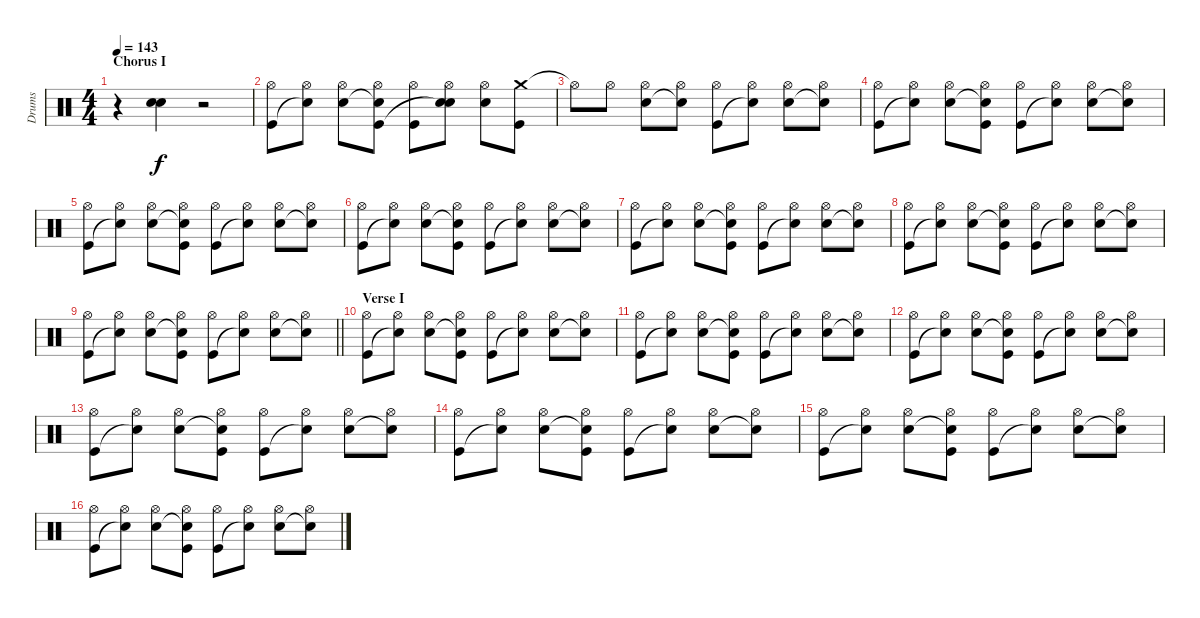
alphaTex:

\track ("Drums" "Drums") {instrument percussion}
\staff {score}
\articulation defaults
\ts (4 4)
\section ("" "Chorus I")
\tempo 143
\clef neutral
\ks c
r.4{dy f} ("Electric Snare (hit)" "Snare (hit) 2").4 r.2 |
("Hi-Hat (open)" "Kick (hit)").8 ("Hi-Hat (open)" "Snare (hit)"{t}).8 ("Hi-Hat (open)" "Snare (hit) 2").8 ("Hi-Hat (open)" "Snare (hit)"{t} "Kick (hit)").8 ("Hi-Hat (open)" "Kick (hit)").8 ("Hi-Hat (open)" "Snare (hit) 2" "Snare (hit)"{t}).8 ("Hi-Hat (open)" "Snare (hit) 2").8 ("Crash medium (hit)" "Kick (hit)").8 |
"Hi-Hat (open)"{t}.8 "Hi-Hat (open)".8 ("Hi-Hat (open)" "Snare (hit) 2").8 ("Hi-Hat (open)" "Snare (hit)"{t}).8 ("Hi-Hat (open)" "Kick (hit)").8 ("Hi-Hat (open)" "Snare (hit)"{t}).8 ("Hi-Hat (open)" "Snare (hit) 2").8 ("Hi-Hat (open)" "Snare (hit)"{t}).8 |
("Hi-Hat (open)" "Kick (hit)").8 ("Hi-Hat (open)" "Snare (hit)"{t}).8 ("Hi-Hat (open)" "Snare (hit) 2").8 ("Hi-Hat (open)" "Snare (hit)"{t} "Kick (hit)").8 ("Hi-Hat (open)" "Kick (hit)").8 ("Hi-Hat (open)" "Snare (hit)"{t}).8 ("Hi-Hat (open)" "Snare (hit) 2").8 ("Hi-Hat (open)" "Snare (hit)"{t}).8 |
("Hi-Hat (open)" "Kick (hit)").8 ("Hi-Hat (open)" "Snare (hit)"{t}).8 ("Hi-Hat (open)" "Snare (hit) 2").8 ("Hi-Hat (open)" "Snare (hit)"{t} "Kick (hit)").8 ("Hi-Hat (open)" "Kick (hit)").8 ("Hi-Hat (open)" "Snare (hit)"{t}).8 ("Hi-Hat (open)" "Snare (hit) 2").8 ("Hi-Hat (open)" "Snare (hit)"{t}).8 |
("Hi-Hat (open)" "Kick (hit)").8 ("Hi-Hat (open)" "Snare (hit)"{t}).8 ("Hi-Hat (open)" "Snare (hit) 2").8 ("Hi-Hat (open)" "Snare (hit)"{t} "Kick (hit)").8 ("Hi-Hat (open)" "Kick (hit)").8 ("Hi-Hat (open)" "Snare (hit)"{t}).8 ("Hi-Hat (open)" "Snare (hit) 2").8 ("Hi-Hat (open)" "Snare (hit)"{t}).8 |
("Hi-Hat (open)" "Kick (hit)").8 ("Hi-Hat (open)" "Snare (hit)"{t}).8 ("Hi-Hat (open)" "Snare (hit) 2").8 ("Hi-Hat (open)" "Snare (hit)"{t} "Kick (hit)").8 ("Hi-Hat (open)" "Kick (hit)").8 ("Hi-Hat (open)" "Snare (hit)"{t}).8 ("Hi-Hat (open)" "Snare (hit) 2").8 ("Hi-Hat (open)" "Snare (hit)"{t}).8 |
("Hi-Hat (open)" "Kick (hit)").8 ("Hi-Hat (open)" "Snare (hit)"{t}).8 ("Hi-Hat (open)" "Snare (hit) 2").8 ("Hi-Hat (open)" "Snare (hit)"{t} "Kick (hit)").8 ("Hi-Hat (open)" "Kick (hit)").8 ("Hi-Hat (open)" "Snare (hit)"{t}).8 ("Hi-Hat (open)" "Snare (hit) 2").8 ("Hi-Hat (open)" "Snare (hit)"{t}).8 |
\barLineRight lightlight
("Hi-Hat (open)" "Kick (hit)").8 ("Hi-Hat (open)" "Snare (hit)"{t}).8 ("Hi-Hat (open)" "Snare (hit) 2").8 ("Hi-Hat (open)" "Snare (hit)"{t} "Kick (hit)").8 ("Hi-Hat (open)" "Kick (hit)").8 ("Hi-Hat (open)" "Snare (hit)"{t}).8 ("Hi-Hat (open)" "Snare (hit) 2").8 ("Hi-Hat (open)" "Snare (hit)"{t}).8 |
\section ("" "Verse I")
("Hi-Hat (open)" "Kick (hit)").8 ("Hi-Hat (open)" "Snare (hit)"{t}).8 ("Hi-Hat (open)" "Snare (hit) 2").8 ("Hi-Hat (open)" "Snare (hit)"{t} "Kick (hit)").8 ("Hi-Hat (open)" "Kick (hit)").8 ("Hi-Hat (open)" "Snare (hit)"{t}).8 ("Hi-Hat (open)" "Snare (hit) 2").8 ("Hi-Hat (open)" "Snare (hit)"{t}).8 |
("Hi-Hat (open)" "Kick (hit)").8 ("Hi-Hat (open)" "Snare (hit)"{t}).8 ("Hi-Hat (open)" "Snare (hit) 2").8 ("Hi-Hat (open)" "Snare (hit)"{t} "Kick (hit)").8 ("Hi-Hat (open)" "Kick (hit)").8 ("Hi-Hat (open)" "Snare (hit)"{t}).8 ("Hi-Hat (open)" "Snare (hit) 2").8 ("Hi-Hat (open)" "Snare (hit)"{t}).8 |
("Hi-Hat (open)" "Kick (hit)").8 ("Hi-Hat (open)" "Snare (hit)"{t}).8 ("Hi-Hat (open)" "Snare (hit) 2").8 ("Hi-Hat (open)" "Snare (hit)"{t} "Kick (hit)").8 ("Hi-Hat (open)" "Kick (hit)").8 ("Hi-Hat (open)" "Snare (hit)"{t}).8 ("Hi-Hat (open)" "Snare (hit) 2").8 ("Hi-Hat (open)" "Snare (hit)"{t}).8 |
("Hi-Hat (open)" "Kick (hit)").8 ("Hi-Hat (open)" "Snare (hit)"{t}).8 ("Hi-Hat (open)" "Snare (hit) 2").8 ("Hi-Hat (open)" "Snare (hit)"{t} "Kick (hit)").8 ("Hi-Hat (open)" "Kick (hit)").8 ("Hi-Hat (open)" "Snare (hit)"{t}).8 ("Hi-Hat (open)" "Snare (hit) 2").8 ("Hi-Hat (open)" "Snare (hit)"{t}).8 |
("Hi-Hat (open)" "Kick (hit)").8 ("Hi-Hat (open)" "Snare (hit)"{t}).8 ("Hi-Hat (open)" "Snare (hit) 2").8 ("Hi-Hat (open)" "Snare (hit)"{t} "Kick (hit)").8 ("Hi-Hat (open)" "Kick (hit)").8 ("Hi-Hat (open)" "Snare (hit)"{t}).8 ("Hi-Hat (open)" "Snare (hit) 2").8 ("Hi-Hat (open)" "Snare (hit)"{t}).8 |
("Hi-Hat (open)" "Kick (hit)").8 ("Hi-Hat (open)" "Snare (hit)"{t}).8 ("Hi-Hat (open)" "Snare (hit) 2").8 ("Hi-Hat (open)" "Snare (hit)"{t} "Kick (hit)").8 ("Hi-Hat (open)" "Kick (hit)").8 ("Hi-Hat (open)" "Snare (hit)"{t}).8 ("Hi-Hat (open)" "Snare (hit) 2").8 ("Hi-Hat (open)" "Snare (hit)"{t}).8 |
("Hi-Hat (open)" "Kick (hit)").8 ("Hi-Hat (open)" "Snare (hit)"{t}).8 ("Hi-Hat (open)" "Snare (hit) 2").8 ("Hi-Hat (open)" "Snare (hit)"{t} "Kick (hit)").8 ("Hi-Hat (open)" "Kick (hit)").8 ("Hi-Hat (open)" "Snare (hit)"{t}).8 ("Hi-Hat (open)" "Snare (hit) 2").8 ("Hi-Hat (open)" "Snare (hit)"{t}).8
